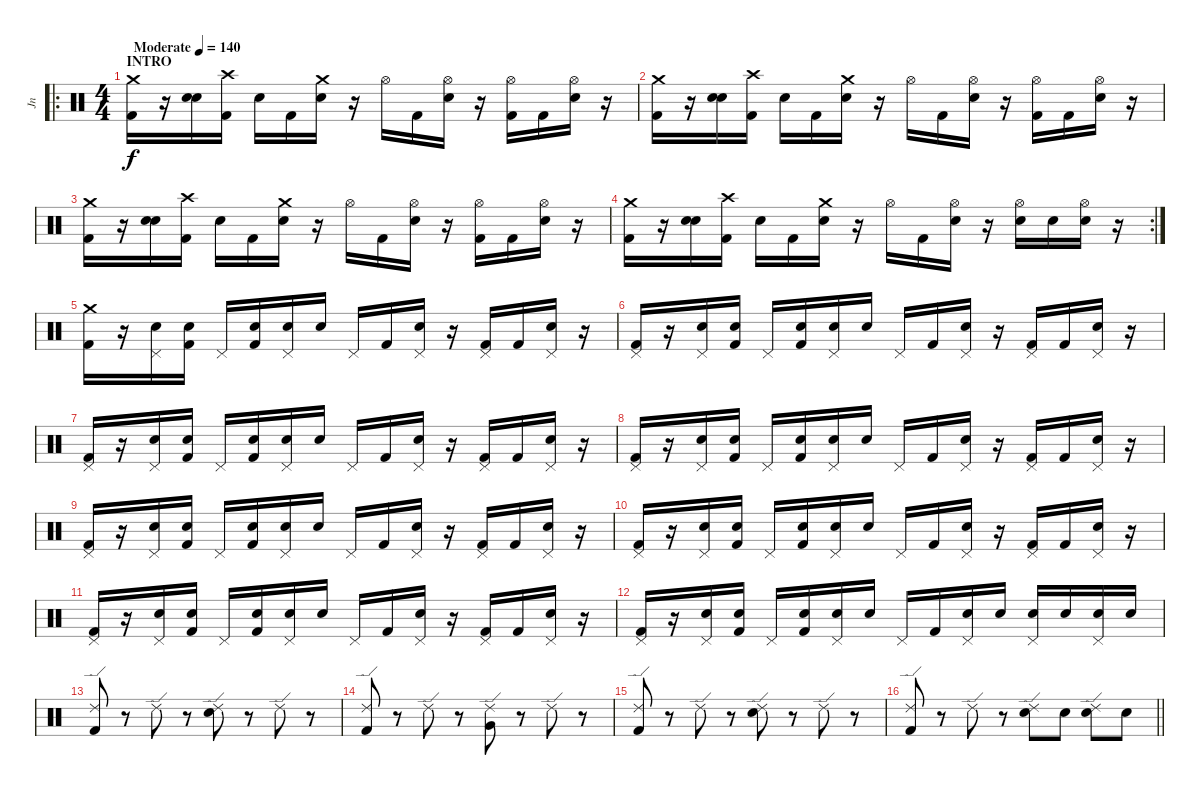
\track ("Jn" "Jn") {instrument percussion}
\staff {score}
\articulation defaults
\ro
\ts (4 4)
\section ("" "INTRO")
\tempo (140 "Moderate")
\clef neutral
\ks c
("Crash medium (hit)" "Kick (hit) 2").16{dy f} r.16 ("Snare (hit)" "Electric Snare (hit)").16 ("Crash high (hit)" "Kick (hit) 2").16 "Snare (hit)".16 "Kick (hit) 2".16 ("Crash medium (hit)" "Electric Snare (hit)").16 r.16 "Hi-Hat (open)".16 "Kick (hit) 2".16 ("Hi-Hat (open)" "Electric Snare (hit)").16 r.16 ("Hi-Hat (open)" "Kick (hit) 2").16 "Kick (hit) 2".16 ("Hi-Hat (open)" "Electric Snare (hit)").16 r.16 |
("Crash medium (hit)" "Kick (hit) 2").16 r.16 ("Snare (hit)" "Electric Snare (hit)").16 ("Crash high (hit)" "Kick (hit) 2").16 "Snare (hit)".16 "Kick (hit) 2".16 ("Crash medium (hit)" "Electric Snare (hit)").16 r.16 "Hi-Hat (open)".16 "Kick (hit) 2".16 ("Hi-Hat (open)" "Electric Snare (hit)").16 r.16 ("Hi-Hat (open)" "Kick (hit) 2").16 "Kick (hit) 2".16 ("Hi-Hat (open)" "Electric Snare (hit)").16 r.16 |
("Crash medium (hit)" "Kick (hit) 2").16 r.16 ("Snare (hit)" "Electric Snare (hit)").16 ("Crash high (hit)" "Kick (hit) 2").16 "Snare (hit)".16 "Kick (hit) 2".16 ("Crash medium (hit)" "Electric Snare (hit)").16 r.16 "Hi-Hat (open)".16 "Kick (hit) 2".16 ("Hi-Hat (open)" "Electric Snare (hit)").16 r.16 ("Hi-Hat (open)" "Kick (hit) 2").16 "Kick (hit) 2".16 ("Hi-Hat (open)" "Electric Snare (hit)").16 r.16 |
\rc 2
("Crash medium (hit)" "Kick (hit) 2").16 r.16 ("Snare (hit)" "Electric Snare (hit)").16 ("Crash high (hit)" "Kick (hit) 2").16 "Snare (hit)".16 "Kick (hit) 2".16 ("Crash medium (hit)" "Electric Snare (hit)").16 r.16 "Hi-Hat (open)".16 "Kick (hit) 2".16 ("Hi-Hat (open)" "Electric Snare (hit)").16 r.16 ("Hi-Hat (open)" "Electric Snare (hit)").16 "Electric Snare (hit)".16 ("Hi-Hat (open)" "Electric Snare (hit)").16 r.16 |
("Crash medium (hit)" "Kick (hit) 2").16 r.16 ("Pedal Hi-Hat (hit)" "Electric Snare (hit)").16 ("Snare (hit)" "Kick (hit) 2").16 "Pedal Hi-Hat (hit)".16 ("Snare (hit)" "Kick (hit) 2").16 ("Pedal Hi-Hat (hit)" "Electric Snare (hit)").16 "Snare (hit)".16 "Pedal Hi-Hat (hit)".16 "Kick (hit) 2".16 ("Pedal Hi-Hat (hit)" "Electric Snare (hit)").16 r.16 ("Pedal Hi-Hat (hit)" "Kick (hit) 2").16 "Kick (hit) 2".16 ("Pedal Hi-Hat (hit)" "Electric Snare (hit)").16 r.16 |
("Pedal Hi-Hat (hit)" "Kick (hit) 2").16 r.16 ("Pedal Hi-Hat (hit)" "Electric Snare (hit)").16 ("Snare (hit)" "Kick (hit) 2").16 "Pedal Hi-Hat (hit)".16 ("Snare (hit)" "Kick (hit) 2").16 ("Pedal Hi-Hat (hit)" "Electric Snare (hit)").16 "Snare (hit)".16 "Pedal Hi-Hat (hit)".16 "Kick (hit) 2".16 ("Pedal Hi-Hat (hit)" "Electric Snare (hit)").16 r.16 ("Pedal Hi-Hat (hit)" "Kick (hit) 2").16 "Kick (hit) 2".16 ("Pedal Hi-Hat (hit)" "Electric Snare (hit)").16 r.16 |
("Pedal Hi-Hat (hit)" "Kick (hit) 2").16 r.16 ("Pedal Hi-Hat (hit)" "Electric Snare (hit)").16 ("Snare (hit)" "Kick (hit) 2").16 "Pedal Hi-Hat (hit)".16 ("Snare (hit)" "Kick (hit) 2").16 ("Pedal Hi-Hat (hit)" "Electric Snare (hit)").16 "Snare (hit)".16 "Pedal Hi-Hat (hit)".16 "Kick (hit) 2".16 ("Pedal Hi-Hat (hit)" "Electric Snare (hit)").16 r.16 ("Pedal Hi-Hat (hit)" "Kick (hit) 2").16 "Kick (hit) 2".16 ("Pedal Hi-Hat (hit)" "Electric Snare (hit)").16 r.16 |
("Pedal Hi-Hat (hit)" "Kick (hit) 2").16 r.16 ("Pedal Hi-Hat (hit)" "Electric Snare (hit)").16 ("Snare (hit)" "Kick (hit) 2").16 "Pedal Hi-Hat (hit)".16 ("Snare (hit)" "Kick (hit) 2").16 ("Pedal Hi-Hat (hit)" "Electric Snare (hit)").16 "Snare (hit)".16 "Pedal Hi-Hat (hit)".16 "Kick (hit) 2".16 ("Pedal Hi-Hat (hit)" "Electric Snare (hit)").16 r.16 ("Pedal Hi-Hat (hit)" "Kick (hit) 2").16 "Kick (hit) 2".16 ("Pedal Hi-Hat (hit)" "Electric Snare (hit)").16 r.16 |
("Pedal Hi-Hat (hit)" "Kick (hit) 2").16 r.16 ("Pedal Hi-Hat (hit)" "Electric Snare (hit)").16 ("Snare (hit)" "Kick (hit) 2").16 "Pedal Hi-Hat (hit)".16 ("Snare (hit)" "Kick (hit) 2").16 ("Pedal Hi-Hat (hit)" "Electric Snare (hit)").16 "Snare (hit)".16 "Pedal Hi-Hat (hit)".16 "Kick (hit) 2".16 ("Pedal Hi-Hat (hit)" "Electric Snare (hit)").16 r.16 ("Pedal Hi-Hat (hit)" "Kick (hit) 2").16 "Kick (hit) 2".16 ("Pedal Hi-Hat (hit)" "Electric Snare (hit)").16 r.16 |
("Pedal Hi-Hat (hit)" "Kick (hit) 2").16 r.16 ("Pedal Hi-Hat (hit)" "Electric Snare (hit)").16 ("Snare (hit)" "Kick (hit) 2").16 "Pedal Hi-Hat (hit)".16 ("Snare (hit)" "Kick (hit) 2").16 ("Pedal Hi-Hat (hit)" "Electric Snare (hit)").16 "Snare (hit)".16 "Pedal Hi-Hat (hit)".16 "Kick (hit) 2".16 ("Pedal Hi-Hat (hit)" "Electric Snare (hit)").16 r.16 ("Pedal Hi-Hat (hit)" "Kick (hit) 2").16 "Kick (hit) 2".16 ("Pedal Hi-Hat (hit)" "Electric Snare (hit)").16 r.16 |
("Pedal Hi-Hat (hit)" "Kick (hit) 2").16 r.16 ("Pedal Hi-Hat (hit)" "Electric Snare (hit)").16 ("Snare (hit)" "Kick (hit) 2").16 "Pedal Hi-Hat (hit)".16 ("Snare (hit)" "Kick (hit) 2").16 ("Pedal Hi-Hat (hit)" "Electric Snare (hit)").16 "Snare (hit)".16 "Pedal Hi-Hat (hit)".16 "Kick (hit) 2".16 ("Pedal Hi-Hat (hit)" "Electric Snare (hit)").16 r.16 ("Pedal Hi-Hat (hit)" "Kick (hit) 2").16 "Kick (hit) 2".16 ("Pedal Hi-Hat (hit)" "Electric Snare (hit)").16 r.16 |
("Pedal Hi-Hat (hit)" "Kick (hit) 2").16 r.16 ("Pedal Hi-Hat (hit)" "Electric Snare (hit)").16 ("Snare (hit)" "Kick (hit) 2").16 "Pedal Hi-Hat (hit)".16 ("Snare (hit)" "Kick (hit) 2").16 ("Pedal Hi-Hat (hit)" "Electric Snare (hit)").16 "Snare (hit)".16 "Pedal Hi-Hat (hit)".16 "Kick (hit) 2".16 ("Pedal Hi-Hat (hit)" "Electric Snare (hit)").16 "Electric Snare (hit)".16 ("Pedal Hi-Hat (hit)" "Electric Snare (hit)").16 "Electric Snare (hit)".16 ("Pedal Hi-Hat (hit)" "Electric Snare (hit)").16 "Electric Snare (hit)".16 |
("Ride (edge) 2" "Kick (hit) 2").8 r.8 "Ride (edge) 2".8 r.8 ("Ride (edge) 2" "Electric Snare (hit)").8 r.8 "Ride (edge) 2".8 r.8 |
("Ride (edge) 2" "Kick (hit) 2").8 r.8 "Ride (edge) 2".8 r.8 ("Ride (edge) 2" "Very Low Tom (hit)").8 r.8 "Ride (edge) 2".8 r.8 |
("Ride (edge) 2" "Kick (hit) 2").8 r.8 "Ride (edge) 2".8 r.8 ("Ride (edge) 2" "Electric Snare (hit)").8 r.8 "Ride (edge) 2".8 r.8 |
\barLineRight lightlight
("Ride (edge) 2" "Kick (hit) 2").8 r.8 "Ride (edge) 2".8 r.8 ("Ride (edge) 2" "Electric Snare (hit)").8 "Electric Snare (hit)".8 ("Ride (edge) 2" "Electric Snare (hit)").8 "Electric Snare (hit)".8
